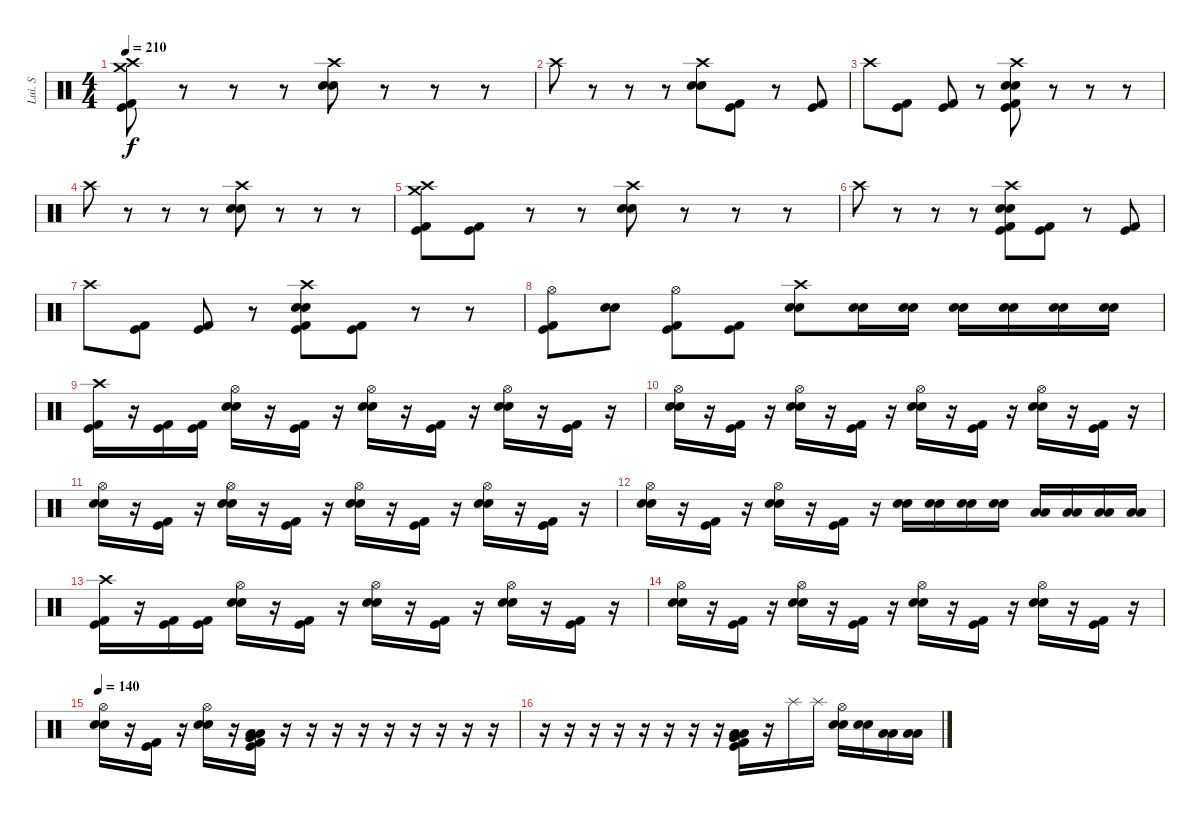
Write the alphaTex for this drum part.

\track ("Lui. S" "Lui. S") {instrument percussion}
\staff {score}
\articulation defaults
\ts (4 4)
\tempo 210
\clef neutral
\ks c
("Crash medium (hit)" "Crash high (hit)" "Kick (hit) 2" "Kick (hit)").8{dy f} r.8 r.8 r.8 ("Crash high (hit)" "Snare (hit) 2" "Electric Snare (hit)").8 r.8 r.8 r.8 |
"Crash high (hit)".8 r.8 r.8 r.8 ("Crash high (hit)" "Snare (hit) 2" "Electric Snare (hit)").8 ("Kick (hit)" "Kick (hit) 2").8 r.8 ("Kick (hit) 2" "Kick (hit)").8 |
"Crash high (hit)".8 ("Kick (hit) 2" "Kick (hit)").8 ("Kick (hit) 2" "Kick (hit)").8 r.8 ("Crash high (hit)" "Snare (hit) 2" "Electric Snare (hit)" "Kick (hit) 2" "Kick (hit)").8 r.8 r.8 r.8 |
"Crash high (hit)".8 r.8 r.8 r.8 ("Crash high (hit)" "Snare (hit) 2" "Electric Snare (hit)").8 r.8 r.8 r.8 |
("Crash medium (hit)" "Crash high (hit)" "Kick (hit) 2" "Kick (hit)").8 ("Kick (hit) 2" "Kick (hit)").8 r.8 r.8 ("Crash high (hit)" "Electric Snare (hit)" "Snare (hit) 2").8 r.8 r.8 r.8 |
"Crash high (hit)".8 r.8 r.8 r.8 ("Crash high (hit)" "Electric Snare (hit)" "Snare (hit) 2" "Kick (hit) 2" "Kick (hit)").8 ("Kick (hit) 2" "Kick (hit)").8 r.8 ("Kick (hit) 2" "Kick (hit)").8 |
"Crash high (hit)".8 ("Kick (hit) 2" "Kick (hit)").8 ("Kick (hit) 2" "Kick (hit)").8 r.8 ("Crash high (hit)" "Snare (hit) 2" "Electric Snare (hit)" "Kick (hit) 2" "Kick (hit)").8 ("Kick (hit) 2" "Kick (hit)").8 r.8 r.8 |
("Hi-Hat (open)" "Kick (hit) 2" "Kick (hit)").8 ("Electric Snare (hit)" "Snare (hit) 2").8 ("Hi-Hat (open)" "Kick (hit) 2" "Kick (hit)").8 ("Kick (hit) 2" "Kick (hit)").8 ("Crash high (hit)" "Electric Snare (hit)" "Snare (hit) 2").8 ("Electric Snare (hit)" "Snare (hit) 2").16 ("Electric Snare (hit)" "Snare (hit) 2").16 ("Electric Snare (hit)" "Snare (hit) 2").16 ("Electric Snare (hit)" "Snare (hit) 2").16 ("Electric Snare (hit)" "Snare (hit) 2").16 ("Electric Snare (hit)" "Snare (hit) 2").16 |
("Crash high (hit)" "Kick (hit)" "Kick (hit) 2").16 r.16 ("Kick (hit) 2" "Kick (hit)").16 ("Kick (hit) 2" "Kick (hit)").16 ("Hi-Hat (open)" "Electric Snare (hit)" "Snare (hit) 2").16 r.16 ("Kick (hit) 2" "Kick (hit)").16 r.16 ("Hi-Hat (open)" "Electric Snare (hit)" "Snare (hit) 2").16 r.16 ("Kick (hit) 2" "Kick (hit)").16 r.16 ("Hi-Hat (open)" "Electric Snare (hit)" "Snare (hit) 2").16 r.16 ("Kick (hit) 2" "Kick (hit)").16 r.16 |
("Hi-Hat (open)" "Electric Snare (hit)" "Snare (hit) 2").16 r.16 ("Kick (hit) 2" "Kick (hit)").16 r.16 ("Hi-Hat (open)" "Electric Snare (hit)" "Snare (hit) 2").16 r.16 ("Kick (hit) 2" "Kick (hit)").16 r.16 ("Hi-Hat (open)" "Electric Snare (hit)" "Snare (hit) 2").16 r.16 ("Kick (hit) 2" "Kick (hit)").16 r.16 ("Hi-Hat (open)" "Snare (hit) 2" "Electric Snare (hit)").16 r.16 ("Kick (hit) 2" "Kick (hit)").16 r.16 |
("Hi-Hat (open)" "Electric Snare (hit)" "Snare (hit) 2").16 r.16 ("Kick (hit) 2" "Kick (hit)").16 r.16 ("Hi-Hat (open)" "Electric Snare (hit)" "Snare (hit) 2").16 r.16 ("Kick (hit) 2" "Kick (hit)").16 r.16 ("Hi-Hat (open)" "Electric Snare (hit)" "Snare (hit) 2").16 r.16 ("Kick (hit) 2" "Kick (hit)").16 r.16 ("Hi-Hat (open)" "Snare (hit) 2" "Electric Snare (hit)").16 r.16 ("Kick (hit) 2" "Kick (hit)").16 r.16 |
("Hi-Hat (open)" "Electric Snare (hit)" "Snare (hit) 2").16 r.16 ("Kick (hit) 2" "Kick (hit)").16 r.16 ("Hi-Hat (open)" "Electric Snare (hit)" "Snare (hit) 2").16 r.16 ("Kick (hit) 2" "Kick (hit)").16 r.16 ("Electric Snare (hit)" "Snare (hit) 2").16 ("Electric Snare (hit)" "Snare (hit) 2").16 ("Electric Snare (hit)" "Snare (hit) 2").16 ("Electric Snare (hit)" "Snare (hit) 2").16 ("Low Tom (hit)" "Low Tom (hit)").16 ("Low Tom (hit)" "Low Tom (hit)").16 ("Low Tom (hit)" "Low Tom (hit)").16 ("Low Tom (hit)" "Low Tom (hit)").16 |
("Crash high (hit)" "Kick (hit)" "Kick (hit) 2").16 r.16 ("Kick (hit) 2" "Kick (hit)").16 ("Kick (hit) 2" "Kick (hit)").16 ("Hi-Hat (open)" "Electric Snare (hit)" "Snare (hit) 2").16 r.16 ("Kick (hit) 2" "Kick (hit)").16 r.16 ("Hi-Hat (open)" "Electric Snare (hit)" "Snare (hit) 2").16 r.16 ("Kick (hit) 2" "Kick (hit)").16 r.16 ("Hi-Hat (open)" "Electric Snare (hit)" "Snare (hit) 2").16 r.16 ("Kick (hit) 2" "Kick (hit)").16 r.16 |
("Hi-Hat (open)" "Electric Snare (hit)" "Snare (hit) 2").16 r.16 ("Kick (hit) 2" "Kick (hit)").16 r.16 ("Hi-Hat (open)" "Electric Snare (hit)" "Snare (hit) 2").16 r.16 ("Kick (hit) 2" "Kick (hit)").16 r.16 ("Hi-Hat (open)" "Electric Snare (hit)" "Snare (hit) 2").16 r.16 ("Kick (hit) 2" "Kick (hit)").16 r.16 ("Hi-Hat (open)" "Snare (hit) 2" "Electric Snare (hit)").16 r.16 ("Kick (hit) 2" "Kick (hit)").16 r.16 |
\tempo 140
("Hi-Hat (open)" "Snare (hit) 2" "Electric Snare (hit)").16 r.16 ("Kick (hit) 2" "Kick (hit)").16 r.16 ("Hi-Hat (open)" "Snare (hit) 2" "Electric Snare (hit)").16 r.16 ("Low Floor Tom (hit)" "Very Low Tom (hit)" "Very Low Tom (hit)" "Low Floor Tom (hit)" "Kick (hit) 2" "Kick (hit)").16 r.16 r.16 r.16 r.16 r.16 r.16 r.16 r.16 r.16 |
r.16 r.16 r.16 r.16 r.16 r.16 r.16 r.16 ("Very Low Tom (hit)" "Very Low Tom (hit)" "Low Floor Tom (hit)" "Low Floor Tom (hit)" "Kick (hit) 2" "Kick (hit)").16 r.16 "Splash (hit)".16 "Splash (hit)".16 ("Hi-Hat (open)" "Electric Snare (hit)" "Snare (hit) 2").16 ("Electric Snare (hit)" "Snare (hit) 2").16 ("Low Tom (hit)" "Low Tom (hit)").16 ("Low Tom (hit)" "Low Tom (hit)").16
